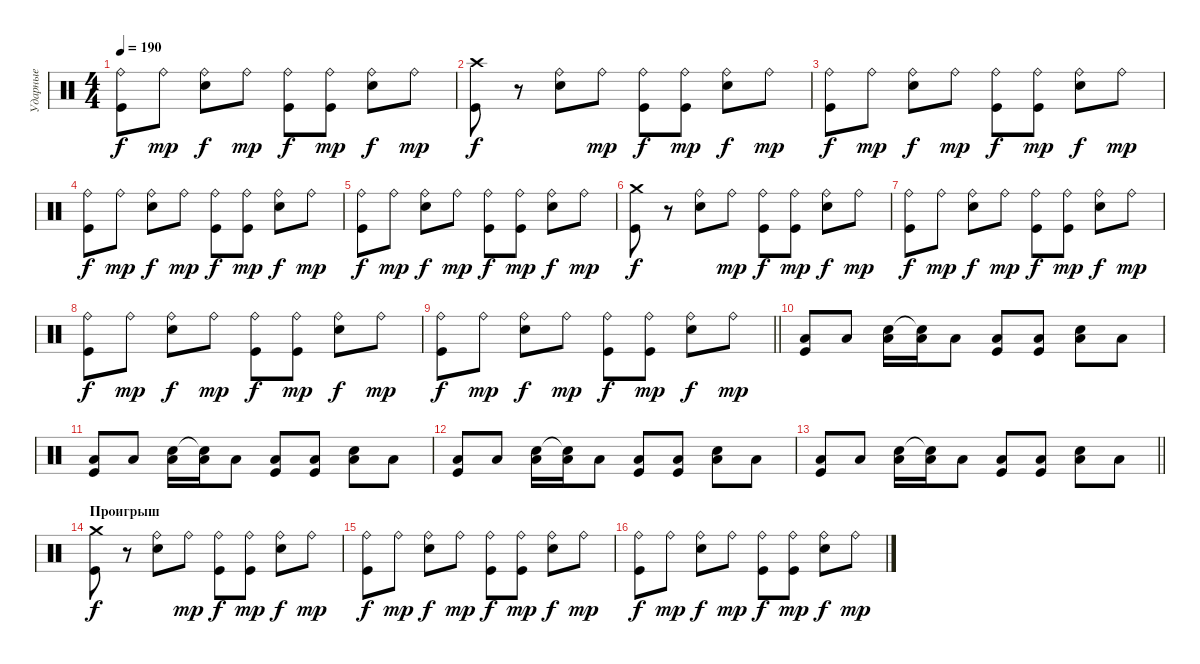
\track ("Ударные" "Ударные") {instrument percussion}
\staff {score}
\articulation defaults
\ts (4 4)
\tempo 190
\clef neutral
\ks c
("Ride (bell)" "Kick (hit)").8{dy f} "Ride (bell)".8{dy mp} ("Ride (bell)" "Electric Snare (hit)").8{dy f} "Ride (bell)".8{dy mp} ("Ride (bell)" "Kick (hit)").8{dy f} ("Ride (bell)" "Kick (hit)").8{dy mp} ("Ride (bell)" "Electric Snare (hit)").8{dy f} "Ride (bell)".8{dy mp} |
("Crash high (hit)" "Kick (hit)").8{dy f} r.8 ("Ride (bell)" "Electric Snare (hit)").8 "Ride (bell)".8{dy mp} ("Ride (bell)" "Kick (hit)").8{dy f} ("Ride (bell)" "Kick (hit)").8{dy mp} ("Ride (bell)" "Electric Snare (hit)").8{dy f} "Ride (bell)".8{dy mp} |
("Ride (bell)" "Kick (hit)").8{dy f} "Ride (bell)".8{dy mp} ("Ride (bell)" "Electric Snare (hit)").8{dy f} "Ride (bell)".8{dy mp} ("Ride (bell)" "Kick (hit)").8{dy f} ("Ride (bell)" "Kick (hit)").8{dy mp} ("Ride (bell)" "Electric Snare (hit)").8{dy f} "Ride (bell)".8{dy mp} |
("Ride (bell)" "Kick (hit)").8{dy f} "Ride (bell)".8{dy mp} ("Ride (bell)" "Electric Snare (hit)").8{dy f} "Ride (bell)".8{dy mp} ("Ride (bell)" "Kick (hit)").8{dy f} ("Ride (bell)" "Kick (hit)").8{dy mp} ("Ride (bell)" "Electric Snare (hit)").8{dy f} "Ride (bell)".8{dy mp} |
("Ride (bell)" "Kick (hit)").8{dy f} "Ride (bell)".8{dy mp} ("Ride (bell)" "Electric Snare (hit)").8{dy f} "Ride (bell)".8{dy mp} ("Ride (bell)" "Kick (hit)").8{dy f} ("Ride (bell)" "Kick (hit)").8{dy mp} ("Ride (bell)" "Electric Snare (hit)").8{dy f} "Ride (bell)".8{dy mp} |
("Crash medium (hit)" "Kick (hit)").8{dy f} r.8 ("Ride (bell)" "Electric Snare (hit)").8 "Ride (bell)".8{dy mp} ("Ride (bell)" "Kick (hit)").8{dy f} ("Ride (bell)" "Kick (hit)").8{dy mp} ("Ride (bell)" "Electric Snare (hit)").8{dy f} "Ride (bell)".8{dy mp} |
("Ride (bell)" "Kick (hit)").8{dy f} "Ride (bell)".8{dy mp} ("Ride (bell)" "Electric Snare (hit)").8{dy f} "Ride (bell)".8{dy mp} ("Ride (bell)" "Kick (hit)").8{dy f} ("Ride (bell)" "Kick (hit)").8{dy mp} ("Ride (bell)" "Electric Snare (hit)").8{dy f} "Ride (bell)".8{dy mp} |
("Ride (bell)" "Kick (hit)").8{dy f} "Ride (bell)".8{dy mp} ("Ride (bell)" "Electric Snare (hit)").8{dy f} "Ride (bell)".8{dy mp} ("Ride (bell)" "Kick (hit)").8{dy f} ("Ride (bell)" "Kick (hit)").8{dy mp} ("Ride (bell)" "Electric Snare (hit)").8{dy f} "Ride (bell)".8{dy mp} |
\barLineRight lightlight
("Ride (bell)" "Kick (hit)").8{dy f} "Ride (bell)".8{dy mp} ("Ride (bell)" "Electric Snare (hit)").8{dy f} "Ride (bell)".8{dy mp} ("Ride (bell)" "Kick (hit)").8{dy f} ("Ride (bell)" "Kick (hit)").8{dy mp} ("Ride (bell)" "Electric Snare (hit)").8{dy f} "Ride (bell)".8{dy mp} |
\section ("" " ")
("Low Tom (hit)" "Kick (hit)").8 "Low Tom (hit)".8 ("Low Tom (hit)" "Electric Snare (hit)").16 ("Low Tom (hit)" "Snare (hit)"{t}).16 "Low Tom (hit)".8 ("Low Tom (hit)" "Kick (hit)").8 ("Low Tom (hit)" "Kick (hit)").8 ("Low Tom (hit)" "Electric Snare (hit)").8 "Low Tom (hit)".8 |
("Low Tom (hit)" "Kick (hit)").8 "Low Tom (hit)".8 ("Low Tom (hit)" "Electric Snare (hit)").16 ("Low Tom (hit)" "Snare (hit)"{t}).16 "Low Tom (hit)".8 ("Low Tom (hit)" "Kick (hit)").8 ("Low Tom (hit)" "Kick (hit)").8 ("Low Tom (hit)" "Electric Snare (hit)").8 "Low Tom (hit)".8 |
("Low Tom (hit)" "Kick (hit)").8 "Low Tom (hit)".8 ("Low Tom (hit)" "Electric Snare (hit)").16 ("Low Tom (hit)" "Snare (hit)"{t}).16 "Low Tom (hit)".8 ("Low Tom (hit)" "Kick (hit)").8 ("Low Tom (hit)" "Kick (hit)").8 ("Low Tom (hit)" "Electric Snare (hit)").8 "Low Tom (hit)".8 |
\barLineRight lightlight
("Low Tom (hit)" "Kick (hit)").8 "Low Tom (hit)".8 ("Low Tom (hit)" "Electric Snare (hit)").16 ("Low Tom (hit)" "Snare (hit)"{t}).16 "Low Tom (hit)".8 ("Low Tom (hit)" "Kick (hit)").8 ("Low Tom (hit)" "Kick (hit)").8 ("Low Tom (hit)" "Electric Snare (hit)").8 "Low Tom (hit)".8 |
\section ("" "Проигрыш")
("Crash medium (hit)" "Kick (hit)").8{dy f} r.8 ("Ride (bell)" "Electric Snare (hit)").8 "Ride (bell)".8{dy mp} ("Ride (bell)" "Kick (hit)").8{dy f} ("Ride (bell)" "Kick (hit)").8{dy mp} ("Ride (bell)" "Electric Snare (hit)").8{dy f} "Ride (bell)".8{dy mp} |
("Ride (bell)" "Kick (hit)").8{dy f} "Ride (bell)".8{dy mp} ("Ride (bell)" "Electric Snare (hit)").8{dy f} "Ride (bell)".8{dy mp} ("Ride (bell)" "Kick (hit)").8{dy f} ("Ride (bell)" "Kick (hit)").8{dy mp} ("Ride (bell)" "Electric Snare (hit)").8{dy f} "Ride (bell)".8{dy mp} |
("Ride (bell)" "Kick (hit)").8{dy f} "Ride (bell)".8{dy mp} ("Ride (bell)" "Electric Snare (hit)").8{dy f} "Ride (bell)".8{dy mp} ("Ride (bell)" "Kick (hit)").8{dy f} ("Ride (bell)" "Kick (hit)").8{dy mp} ("Ride (bell)" "Electric Snare (hit)").8{dy f} "Ride (bell)".8{dy mp}
